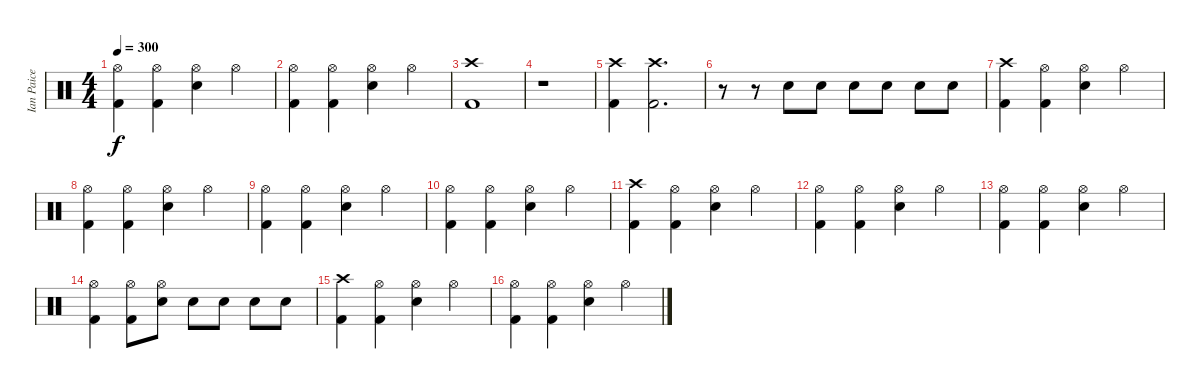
\track ("Ian Paice" "Ian Paice") {instrument percussion}
\staff {score}
\articulation defaults
\ts (4 4)
\tempo 300
\clef neutral
\ks c
("Hi-Hat (open)" "Kick (hit) 2").4{dy f} ("Hi-Hat (open)" "Kick (hit) 2").4 ("Hi-Hat (open)" "Electric Snare (hit)").4 "Hi-Hat (open)".4 |
("Hi-Hat (open)" "Kick (hit) 2").4 ("Hi-Hat (open)" "Kick (hit) 2").4 ("Hi-Hat (open)" "Electric Snare (hit)").4 "Hi-Hat (open)".4 |
("Crash high (hit)" "Kick (hit) 2").1 |
r.1 |
("Crash high (hit)" "Kick (hit) 2").4 ("Crash high (hit)" "Kick (hit) 2").2{d} |
r.8 r.8 "Electric Snare (hit)".8 "Electric Snare (hit)".8 "Electric Snare (hit)".8 "Electric Snare (hit)".8 "Electric Snare (hit)".8 "Electric Snare (hit)".8 |
("Crash high (hit)" "Kick (hit) 2").4 ("Hi-Hat (open)" "Kick (hit) 2").4 ("Hi-Hat (open)" "Electric Snare (hit)").4 "Hi-Hat (open)".4 |
("Hi-Hat (open)" "Kick (hit) 2").4 ("Hi-Hat (open)" "Kick (hit) 2").4 ("Hi-Hat (open)" "Electric Snare (hit)").4 "Hi-Hat (open)".4 |
("Hi-Hat (open)" "Kick (hit) 2").4 ("Hi-Hat (open)" "Kick (hit) 2").4 ("Hi-Hat (open)" "Electric Snare (hit)").4 "Hi-Hat (open)".4 |
("Hi-Hat (open)" "Kick (hit) 2").4 ("Hi-Hat (open)" "Kick (hit) 2").4 ("Hi-Hat (open)" "Electric Snare (hit)").4 "Hi-Hat (open)".4 |
("Crash high (hit)" "Kick (hit) 2").4 ("Hi-Hat (open)" "Kick (hit) 2").4 ("Hi-Hat (open)" "Electric Snare (hit)").4 "Hi-Hat (open)".4 |
("Hi-Hat (open)" "Kick (hit) 2").4 ("Hi-Hat (open)" "Kick (hit) 2").4 ("Hi-Hat (open)" "Electric Snare (hit)").4 "Hi-Hat (open)".4 |
("Hi-Hat (open)" "Kick (hit) 2").4 ("Hi-Hat (open)" "Kick (hit) 2").4 ("Hi-Hat (open)" "Electric Snare (hit)").4 "Hi-Hat (open)".4 |
("Hi-Hat (open)" "Kick (hit) 2").4 ("Hi-Hat (open)" "Kick (hit) 2").8 ("Hi-Hat (open)" "Electric Snare (hit)").8 "Electric Snare (hit)".8 "Electric Snare (hit)".8 "Electric Snare (hit)".8 "Electric Snare (hit)".8 |
("Crash high (hit)" "Kick (hit) 2").4 ("Hi-Hat (open)" "Kick (hit) 2").4 ("Hi-Hat (open)" "Electric Snare (hit)").4 "Hi-Hat (open)".4 |
("Hi-Hat (open)" "Kick (hit) 2").4 ("Hi-Hat (open)" "Kick (hit) 2").4 ("Hi-Hat (open)" "Electric Snare (hit)").4 "Hi-Hat (open)".4
